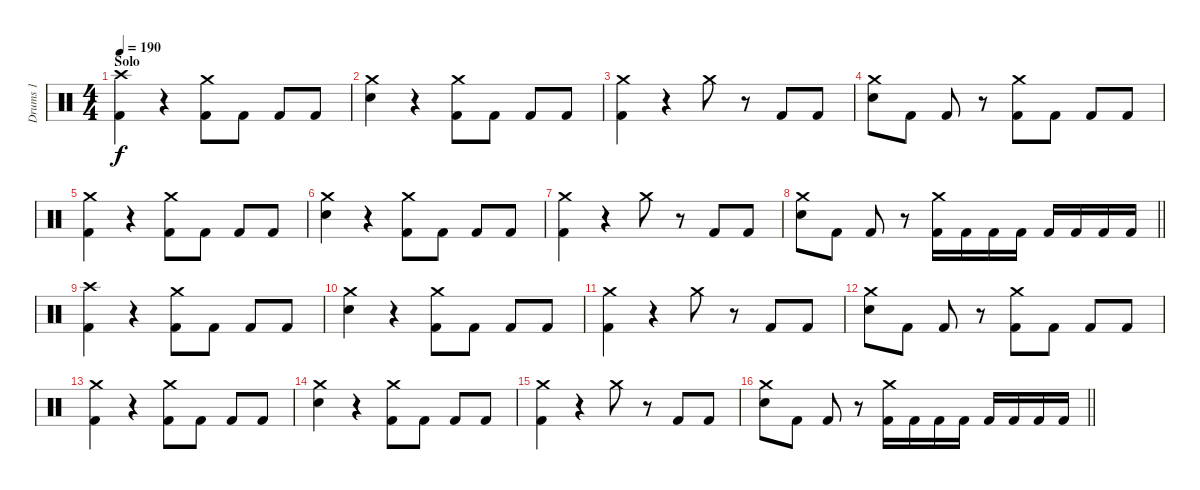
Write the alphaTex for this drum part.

\track ("Drums 1" "Drums 1") {instrument percussion}
\staff {score}
\articulation defaults
\ts (4 4)
\section ("" "Solo")
\tempo 190
\clef neutral
\ks c
("Crash high (hit)" "Kick (hit) 2").4{dy f} r.4 ("Crash medium (hit)" "Kick (hit) 2").8 "Kick (hit) 2".8 "Kick (hit) 2".8 "Kick (hit) 2".8 |
("Crash medium (hit)" "Snare (hit) 2").4 r.4 ("Crash medium (hit)" "Kick (hit) 2").8 "Kick (hit) 2".8 "Kick (hit) 2".8 "Kick (hit) 2".8 |
("Crash medium (hit)" "Kick (hit) 2").4 r.4 "Crash medium (hit)".8 r.8 "Kick (hit) 2".8 "Kick (hit) 2".8 |
("Crash medium (hit)" "Snare (hit) 2").8 "Kick (hit) 2".8 "Kick (hit) 2".8 r.8 ("Crash medium (hit)" "Kick (hit) 2").8 "Kick (hit) 2".8 "Kick (hit) 2".8 "Kick (hit) 2".8 |
("Crash medium (hit)" "Kick (hit) 2").4 r.4 ("Crash medium (hit)" "Kick (hit) 2").8 "Kick (hit) 2".8 "Kick (hit) 2".8 "Kick (hit) 2".8 |
("Crash medium (hit)" "Snare (hit) 2").4 r.4 ("Crash medium (hit)" "Kick (hit) 2").8 "Kick (hit) 2".8 "Kick (hit) 2".8 "Kick (hit) 2".8 |
("Crash medium (hit)" "Kick (hit) 2").4 r.4 "Crash medium (hit)".8 r.8 "Kick (hit) 2".8 "Kick (hit) 2".8 |
\barLineRight lightlight
("Crash medium (hit)" "Snare (hit) 2").8 "Kick (hit) 2".8 "Kick (hit) 2".8 r.8 ("Crash medium (hit)" "Kick (hit) 2").16 "Kick (hit) 2".16 "Kick (hit) 2".16 "Kick (hit) 2".16 "Kick (hit) 2".16 "Kick (hit) 2".16 "Kick (hit) 2".16 "Kick (hit) 2".16 |
("Crash high (hit)" "Kick (hit) 2").4 r.4 ("Crash medium (hit)" "Kick (hit) 2").8 "Kick (hit) 2".8 "Kick (hit) 2".8 "Kick (hit) 2".8 |
("Crash medium (hit)" "Snare (hit) 2").4 r.4 ("Crash medium (hit)" "Kick (hit) 2").8 "Kick (hit) 2".8 "Kick (hit) 2".8 "Kick (hit) 2".8 |
("Crash medium (hit)" "Kick (hit) 2").4 r.4 "Crash medium (hit)".8 r.8 "Kick (hit) 2".8 "Kick (hit) 2".8 |
("Crash medium (hit)" "Snare (hit) 2").8 "Kick (hit) 2".8 "Kick (hit) 2".8 r.8 ("Crash medium (hit)" "Kick (hit) 2").8 "Kick (hit) 2".8 "Kick (hit) 2".8 "Kick (hit) 2".8 |
("Crash medium (hit)" "Kick (hit) 2").4 r.4 ("Crash medium (hit)" "Kick (hit) 2").8 "Kick (hit) 2".8 "Kick (hit) 2".8 "Kick (hit) 2".8 |
("Crash medium (hit)" "Snare (hit) 2").4 r.4 ("Crash medium (hit)" "Kick (hit) 2").8 "Kick (hit) 2".8 "Kick (hit) 2".8 "Kick (hit) 2".8 |
("Crash medium (hit)" "Kick (hit) 2").4 r.4 "Crash medium (hit)".8 r.8 "Kick (hit) 2".8 "Kick (hit) 2".8 |
\barLineRight lightlight
("Crash medium (hit)" "Snare (hit) 2").8 "Kick (hit) 2".8 "Kick (hit) 2".8 r.8 ("Crash medium (hit)" "Kick (hit) 2").16 "Kick (hit) 2".16 "Kick (hit) 2".16 "Kick (hit) 2".16 "Kick (hit) 2".16 "Kick (hit) 2".16 "Kick (hit) 2".16 "Kick (hit) 2".16
